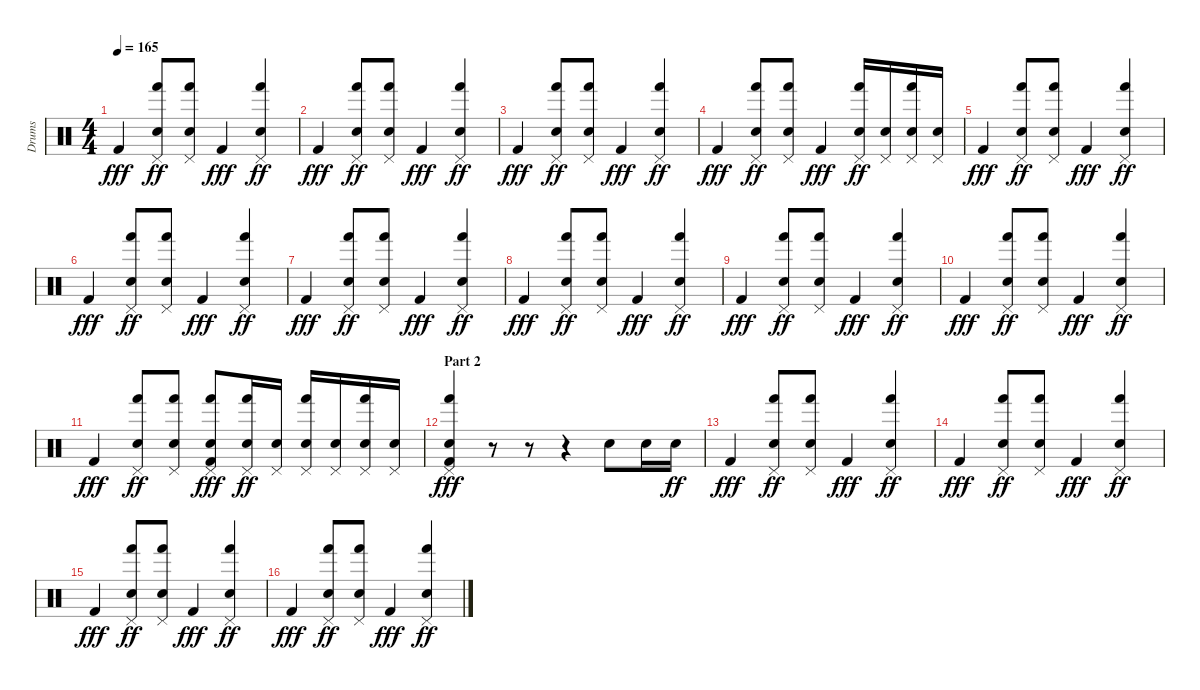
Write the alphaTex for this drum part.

\track ("Drums" "Drums") {instrument percussion}
\staff {score}
\articulation defaults
\ts (4 4)
\tempo 165
\clef neutral
\ks c "Kick (hit) 2".4{dy fff}
("Pedal Hi-Hat (hit)" "Hand (hit)" "Electric Snare (hit)").8{dy ff} ("Pedal Hi-Hat (hit)" "Hand (hit)" "Electric Snare (hit)").8 "Kick (hit) 2".4{dy fff} ("Pedal Hi-Hat (hit)" "Hand (hit)" "Electric Snare (hit)").4{dy ff} |
"Kick (hit) 2".4{dy fff} ("Pedal Hi-Hat (hit)" "Hand (hit)" "Electric Snare (hit)").8{dy ff} ("Pedal Hi-Hat (hit)" "Hand (hit)" "Electric Snare (hit)").8 "Kick (hit) 2".4{dy fff} ("Pedal Hi-Hat (hit)" "Hand (hit)" "Electric Snare (hit)").4{dy ff} |
"Kick (hit) 2".4{dy fff} ("Pedal Hi-Hat (hit)" "Hand (hit)" "Electric Snare (hit)").8{dy ff} ("Pedal Hi-Hat (hit)" "Hand (hit)" "Electric Snare (hit)").8 "Kick (hit) 2".4{dy fff} ("Pedal Hi-Hat (hit)" "Hand (hit)" "Electric Snare (hit)").4{dy ff} |
"Kick (hit) 2".4{dy fff} ("Pedal Hi-Hat (hit)" "Hand (hit)" "Electric Snare (hit)").8{dy ff} ("Pedal Hi-Hat (hit)" "Hand (hit)" "Electric Snare (hit)").8 "Kick (hit) 2".4{dy fff} ("Pedal Hi-Hat (hit)" "Hand (hit)" "Electric Snare (hit)").16{dy ff} ("Pedal Hi-Hat (hit)" "Electric Snare (hit)").16 ("Pedal Hi-Hat (hit)" "Hand (hit)" "Electric Snare (hit)").16 ("Pedal Hi-Hat (hit)" "Electric Snare (hit)").16 |
"Kick (hit) 2".4{dy fff} ("Pedal Hi-Hat (hit)" "Hand (hit)" "Electric Snare (hit)").8{dy ff} ("Pedal Hi-Hat (hit)" "Hand (hit)" "Electric Snare (hit)").8 "Kick (hit) 2".4{dy fff} ("Pedal Hi-Hat (hit)" "Hand (hit)" "Electric Snare (hit)").4{dy ff} |
"Kick (hit) 2".4{dy fff} ("Pedal Hi-Hat (hit)" "Hand (hit)" "Electric Snare (hit)").8{dy ff} ("Pedal Hi-Hat (hit)" "Hand (hit)" "Electric Snare (hit)").8 "Kick (hit) 2".4{dy fff} ("Pedal Hi-Hat (hit)" "Hand (hit)" "Electric Snare (hit)").4{dy ff} |
"Kick (hit) 2".4{dy fff} ("Pedal Hi-Hat (hit)" "Hand (hit)" "Electric Snare (hit)").8{dy ff} ("Pedal Hi-Hat (hit)" "Hand (hit)" "Electric Snare (hit)").8 "Kick (hit) 2".4{dy fff} ("Pedal Hi-Hat (hit)" "Hand (hit)" "Electric Snare (hit)").4{dy ff} |
"Kick (hit) 2".4{dy fff} ("Pedal Hi-Hat (hit)" "Hand (hit)" "Electric Snare (hit)").8{dy ff} ("Pedal Hi-Hat (hit)" "Hand (hit)" "Electric Snare (hit)").8 "Kick (hit) 2".4{dy fff} ("Pedal Hi-Hat (hit)" "Hand (hit)" "Electric Snare (hit)").4{dy ff} |
"Kick (hit) 2".4{dy fff} ("Pedal Hi-Hat (hit)" "Hand (hit)" "Electric Snare (hit)").8{dy ff} ("Pedal Hi-Hat (hit)" "Hand (hit)" "Electric Snare (hit)").8 "Kick (hit) 2".4{dy fff} ("Pedal Hi-Hat (hit)" "Hand (hit)" "Electric Snare (hit)").4{dy ff} |
"Kick (hit) 2".4{dy fff} ("Pedal Hi-Hat (hit)" "Hand (hit)" "Electric Snare (hit)").8{dy ff} ("Pedal Hi-Hat (hit)" "Hand (hit)" "Electric Snare (hit)").8 "Kick (hit) 2".4{dy fff} ("Pedal Hi-Hat (hit)" "Hand (hit)" "Electric Snare (hit)").4{dy ff} |
"Kick (hit) 2".4{dy fff} ("Pedal Hi-Hat (hit)" "Hand (hit)" "Electric Snare (hit)").8{dy ff} ("Pedal Hi-Hat (hit)" "Hand (hit)" "Electric Snare (hit)").8 ("Pedal Hi-Hat (hit)" "Hand (hit)" "Electric Snare (hit)" "Kick (hit) 2").8{dy fff} ("Pedal Hi-Hat (hit)" "Hand (hit)" "Electric Snare (hit)").16{dy ff} ("Pedal Hi-Hat (hit)" "Electric Snare (hit)").16 ("Pedal Hi-Hat (hit)" "Hand (hit)" "Electric Snare (hit)").16 ("Pedal Hi-Hat (hit)" "Electric Snare (hit)").16 ("Pedal Hi-Hat (hit)" "Hand (hit)" "Electric Snare (hit)").16 ("Pedal Hi-Hat (hit)" "Electric Snare (hit)").16 |
\section ("" "Part 2")
("Pedal Hi-Hat (hit)" "Hand (hit)" "Electric Snare (hit)" "Kick (hit) 2").4{dy fff} r.8 r.8 r.4 "Electric Snare (hit)".8 "Electric Snare (hit)".16 "Electric Snare (hit)".16{dy ff} |
"Kick (hit) 2".4{dy fff} ("Pedal Hi-Hat (hit)" "Hand (hit)" "Electric Snare (hit)").8{dy ff} ("Pedal Hi-Hat (hit)" "Hand (hit)" "Electric Snare (hit)").8 "Kick (hit) 2".4{dy fff} ("Pedal Hi-Hat (hit)" "Hand (hit)" "Electric Snare (hit)").4{dy ff} |
"Kick (hit) 2".4{dy fff} ("Pedal Hi-Hat (hit)" "Hand (hit)" "Electric Snare (hit)").8{dy ff} ("Pedal Hi-Hat (hit)" "Hand (hit)" "Electric Snare (hit)").8 "Kick (hit) 2".4{dy fff} ("Pedal Hi-Hat (hit)" "Hand (hit)" "Electric Snare (hit)").4{dy ff} |
"Kick (hit) 2".4{dy fff} ("Pedal Hi-Hat (hit)" "Hand (hit)" "Electric Snare (hit)").8{dy ff} ("Pedal Hi-Hat (hit)" "Hand (hit)" "Electric Snare (hit)").8 "Kick (hit) 2".4{dy fff} ("Pedal Hi-Hat (hit)" "Hand (hit)" "Electric Snare (hit)").4{dy ff} |
"Kick (hit) 2".4{dy fff} ("Pedal Hi-Hat (hit)" "Hand (hit)" "Electric Snare (hit)").8{dy ff} ("Pedal Hi-Hat (hit)" "Hand (hit)" "Electric Snare (hit)").8 "Kick (hit) 2".4{dy fff} ("Pedal Hi-Hat (hit)" "Hand (hit)" "Electric Snare (hit)").4{dy ff}
